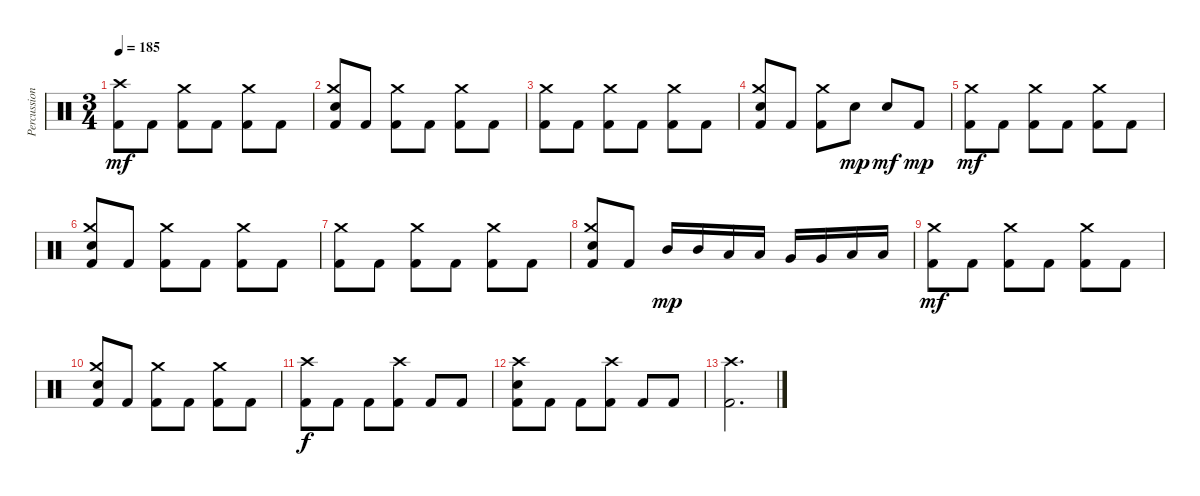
\track ("Percussion" "Percussion") {instrument percussion}
\staff {score}
\articulation defaults
\ts (3 4)
\tempo 185
\clef neutral
\ks c
("Crash high (hit)" "Kick (hit) 2").8{dy mf} "Kick (hit) 2".8 ("Crash medium (hit)" "Kick (hit) 2").8 "Kick (hit) 2".8 ("Crash medium (hit)" "Kick (hit) 2").8 "Kick (hit) 2".8 |
("Crash medium (hit)" "Electric Snare (hit)" "Kick (hit) 2").8 "Kick (hit) 2".8 ("Crash medium (hit)" "Kick (hit) 2").8 "Kick (hit) 2".8 ("Crash medium (hit)" "Kick (hit) 2").8 "Kick (hit) 2".8 |
("Crash medium (hit)" "Kick (hit) 2").8 "Kick (hit) 2".8 ("Crash medium (hit)" "Kick (hit) 2").8 "Kick (hit) 2".8 ("Crash medium (hit)" "Kick (hit) 2").8 "Kick (hit) 2".8 |
("Crash medium (hit)" "Electric Snare (hit)" "Kick (hit) 2").8 "Kick (hit) 2".8 ("Crash medium (hit)" "Kick (hit) 2").8 "Electric Snare (hit)".8{dy mp} "Electric Snare (hit)".8{dy mf} "Kick (hit) 2".8{dy mp} |
("Crash medium (hit)" "Kick (hit) 2").8{dy mf} "Kick (hit) 2".8 ("Crash medium (hit)" "Kick (hit) 2").8 "Kick (hit) 2".8 ("Crash medium (hit)" "Kick (hit) 2").8 "Kick (hit) 2".8 |
("Crash medium (hit)" "Electric Snare (hit)" "Kick (hit) 2").8 "Kick (hit) 2".8 ("Crash medium (hit)" "Kick (hit) 2").8 "Kick (hit) 2".8 ("Crash medium (hit)" "Kick (hit) 2").8 "Kick (hit) 2".8 |
("Crash medium (hit)" "Kick (hit) 2").8 "Kick (hit) 2".8 ("Crash medium (hit)" "Kick (hit) 2").8 "Kick (hit) 2".8 ("Crash medium (hit)" "Kick (hit) 2").8 "Kick (hit) 2".8 |
("Crash medium (hit)" "Electric Snare (hit)" "Kick (hit) 2").8 "Kick (hit) 2".8 "Mid Tom (hit)".16{dy mp} "Mid Tom (hit)".16 "Low Tom (hit)".16 "Low Tom (hit)".16 "Very Low Tom (hit)".16 "Very Low Tom (hit)".16 "Low Floor Tom (hit)".16 "Low Floor Tom (hit)".16 |
("Crash medium (hit)" "Kick (hit) 2").8{dy mf} "Kick (hit) 2".8 ("Crash medium (hit)" "Kick (hit) 2").8 "Kick (hit) 2".8 ("Crash medium (hit)" "Kick (hit) 2").8 "Kick (hit) 2".8 |
("Crash medium (hit)" "Electric Snare (hit)" "Kick (hit) 2").8 "Kick (hit) 2".8 ("Crash medium (hit)" "Kick (hit) 2").8 "Kick (hit) 2".8 ("Crash medium (hit)" "Kick (hit) 2").8 "Kick (hit) 2".8 |
("Crash high (hit)" "Kick (hit) 2").8{dy f} "Kick (hit) 2".8 "Kick (hit) 2".8 ("Crash high (hit)" "Kick (hit) 2").8 "Kick (hit) 2".8 "Kick (hit) 2".8 |
("Crash high (hit)" "Electric Snare (hit)" "Kick (hit) 2").8 "Kick (hit) 2".8 "Kick (hit) 2".8 ("Crash high (hit)" "Kick (hit) 2").8 "Kick (hit) 2".8 "Kick (hit) 2".8 |
("Crash high (hit)" "Kick (hit) 2").2{d}
